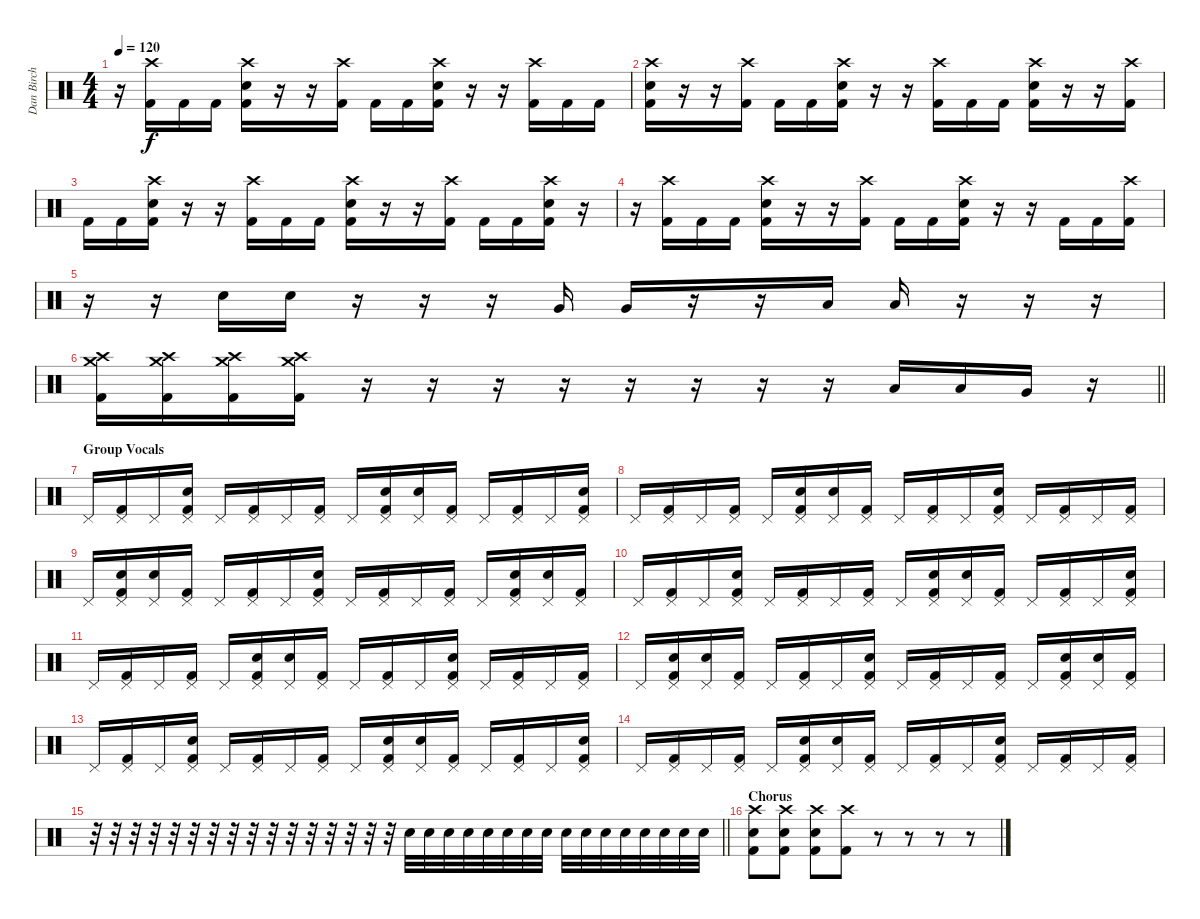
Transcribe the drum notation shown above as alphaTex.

\track ("Dan Birch" "Dan Birch") {instrument percussion}
\staff {score}
\articulation defaults
\ts (4 4)
\tempo 120
\clef neutral
\ks c
r.16{dy f} ("Crash high (hit)" "Kick (hit) 2").16 "Kick (hit) 2".16 "Kick (hit) 2".16 ("Crash high (hit)" "Kick (hit) 2" "Snare (hit) 2").16 r.16 r.16 ("Crash high (hit)" "Kick (hit) 2").16 "Kick (hit) 2".16 "Kick (hit) 2".16 ("Crash high (hit)" "Kick (hit) 2" "Snare (hit) 2").16 r.16 r.16 ("Crash high (hit)" "Kick (hit) 2").16 "Kick (hit) 2".16 "Kick (hit) 2".16 |
("Crash high (hit)" "Kick (hit) 2" "Snare (hit) 2").16 r.16 r.16 ("Crash high (hit)" "Kick (hit) 2").16 "Kick (hit) 2".16 "Kick (hit) 2".16 ("Crash high (hit)" "Kick (hit) 2" "Snare (hit) 2").16 r.16 r.16 ("Crash high (hit)" "Kick (hit) 2").16 "Kick (hit) 2".16 "Kick (hit) 2".16 ("Crash high (hit)" "Kick (hit) 2" "Snare (hit) 2").16 r.16 r.16 ("Crash high (hit)" "Kick (hit) 2").16 |
"Kick (hit) 2".16 "Kick (hit) 2".16 ("Crash high (hit)" "Kick (hit) 2" "Snare (hit) 2").16 r.16 r.16 ("Crash high (hit)" "Kick (hit) 2").16 "Kick (hit) 2".16 "Kick (hit) 2".16 ("Crash high (hit)" "Kick (hit) 2" "Snare (hit) 2").16 r.16 r.16 ("Crash high (hit)" "Kick (hit) 2").16 "Kick (hit) 2".16 "Kick (hit) 2".16 ("Crash high (hit)" "Kick (hit) 2" "Snare (hit) 2").16 r.16 |
r.16 ("Crash high (hit)" "Kick (hit) 2").16 "Kick (hit) 2".16 "Kick (hit) 2".16 ("Crash high (hit)" "Kick (hit) 2" "Snare (hit) 2").16 r.16 r.16 ("Crash high (hit)" "Kick (hit) 2").16 "Kick (hit) 2".16 "Kick (hit) 2".16 ("Crash high (hit)" "Kick (hit) 2" "Snare (hit) 2").16 r.16 r.16 "Kick (hit) 2".16 "Kick (hit) 2".16 ("Crash high (hit)" "Kick (hit) 2").16 |
r.16 r.16 "Snare (hit) 2".16 "Snare (hit) 2".16 r.16 r.16 r.16 "Very Low Tom (hit)".16 "Very Low Tom (hit)".16 r.16 r.16 "Low Tom (hit)".16 "Low Tom (hit)".16 r.16 r.16 r.16 |
\barLineRight lightlight
("Crash high (hit)" "Crash medium (hit)" "Kick (hit) 2").16 ("Crash high (hit)" "Crash medium (hit)" "Kick (hit) 2").16 ("Crash high (hit)" "Crash medium (hit)" "Kick (hit) 2").16 ("Crash high (hit)" "Crash medium (hit)" "Kick (hit) 2").16 r.16 r.16 r.16 r.16 r.16 r.16 r.16 r.16 "Low Tom (hit)".16 "Low Tom (hit)".16 "Very Low Tom (hit)".16 r.16 |
\section ("" "Group Vocals")
"Pedal Hi-Hat (hit)".16 ("Pedal Hi-Hat (hit)" "Kick (hit) 2").16 "Pedal Hi-Hat (hit)".16 ("Pedal Hi-Hat (hit)" "Snare (hit) 2" "Kick (hit) 2").16 "Pedal Hi-Hat (hit)".16 ("Pedal Hi-Hat (hit)" "Kick (hit) 2").16 "Pedal Hi-Hat (hit)".16 ("Pedal Hi-Hat (hit)" "Kick (hit) 2").16 "Pedal Hi-Hat (hit)".16 ("Pedal Hi-Hat (hit)" "Snare (hit) 2" "Kick (hit) 2").16 ("Pedal Hi-Hat (hit)" "Snare (hit) 2").16 ("Pedal Hi-Hat (hit)" "Kick (hit) 2").16 "Pedal Hi-Hat (hit)".16 ("Pedal Hi-Hat (hit)" "Kick (hit) 2").16 "Pedal Hi-Hat (hit)".16 ("Pedal Hi-Hat (hit)" "Snare (hit) 2" "Kick (hit) 2").16 |
"Pedal Hi-Hat (hit)".16 ("Pedal Hi-Hat (hit)" "Kick (hit) 2").16 "Pedal Hi-Hat (hit)".16 ("Pedal Hi-Hat (hit)" "Kick (hit) 2").16 "Pedal Hi-Hat (hit)".16 ("Pedal Hi-Hat (hit)" "Snare (hit) 2" "Kick (hit) 2").16 ("Pedal Hi-Hat (hit)" "Snare (hit) 2").16 ("Pedal Hi-Hat (hit)" "Kick (hit) 2").16 "Pedal Hi-Hat (hit)".16 ("Pedal Hi-Hat (hit)" "Kick (hit) 2").16 "Pedal Hi-Hat (hit)".16 ("Pedal Hi-Hat (hit)" "Snare (hit) 2" "Kick (hit) 2").16 "Pedal Hi-Hat (hit)".16 ("Pedal Hi-Hat (hit)" "Kick (hit) 2").16 "Pedal Hi-Hat (hit)".16 ("Pedal Hi-Hat (hit)" "Kick (hit) 2").16 |
"Pedal Hi-Hat (hit)".16 ("Pedal Hi-Hat (hit)" "Snare (hit) 2" "Kick (hit) 2").16 ("Pedal Hi-Hat (hit)" "Snare (hit) 2").16 ("Pedal Hi-Hat (hit)" "Kick (hit) 2").16 "Pedal Hi-Hat (hit)".16 ("Pedal Hi-Hat (hit)" "Kick (hit) 2").16 "Pedal Hi-Hat (hit)".16 ("Pedal Hi-Hat (hit)" "Snare (hit) 2" "Kick (hit) 2").16 "Pedal Hi-Hat (hit)".16 ("Pedal Hi-Hat (hit)" "Kick (hit) 2").16 "Pedal Hi-Hat (hit)".16 ("Pedal Hi-Hat (hit)" "Kick (hit) 2").16 "Pedal Hi-Hat (hit)".16 ("Pedal Hi-Hat (hit)" "Snare (hit) 2" "Kick (hit) 2").16 ("Pedal Hi-Hat (hit)" "Snare (hit) 2").16 ("Pedal Hi-Hat (hit)" "Kick (hit) 2").16 |
"Pedal Hi-Hat (hit)".16 ("Pedal Hi-Hat (hit)" "Kick (hit) 2").16 "Pedal Hi-Hat (hit)".16 ("Pedal Hi-Hat (hit)" "Snare (hit) 2" "Kick (hit) 2").16 "Pedal Hi-Hat (hit)".16 ("Pedal Hi-Hat (hit)" "Kick (hit) 2").16 "Pedal Hi-Hat (hit)".16 ("Pedal Hi-Hat (hit)" "Kick (hit) 2").16 "Pedal Hi-Hat (hit)".16 ("Pedal Hi-Hat (hit)" "Snare (hit) 2" "Kick (hit) 2").16 ("Pedal Hi-Hat (hit)" "Snare (hit) 2").16 ("Pedal Hi-Hat (hit)" "Kick (hit) 2").16 "Pedal Hi-Hat (hit)".16 ("Pedal Hi-Hat (hit)" "Kick (hit) 2").16 "Pedal Hi-Hat (hit)".16 ("Pedal Hi-Hat (hit)" "Snare (hit) 2" "Kick (hit) 2").16 |
"Pedal Hi-Hat (hit)".16 ("Pedal Hi-Hat (hit)" "Kick (hit) 2").16 "Pedal Hi-Hat (hit)".16 ("Pedal Hi-Hat (hit)" "Kick (hit) 2").16 "Pedal Hi-Hat (hit)".16 ("Pedal Hi-Hat (hit)" "Snare (hit) 2" "Kick (hit) 2").16 ("Pedal Hi-Hat (hit)" "Snare (hit) 2").16 ("Pedal Hi-Hat (hit)" "Kick (hit) 2").16 "Pedal Hi-Hat (hit)".16 ("Pedal Hi-Hat (hit)" "Kick (hit) 2").16 "Pedal Hi-Hat (hit)".16 ("Pedal Hi-Hat (hit)" "Snare (hit) 2" "Kick (hit) 2").16 "Pedal Hi-Hat (hit)".16 ("Pedal Hi-Hat (hit)" "Kick (hit) 2").16 "Pedal Hi-Hat (hit)".16 ("Pedal Hi-Hat (hit)" "Kick (hit) 2").16 |
"Pedal Hi-Hat (hit)".16 ("Pedal Hi-Hat (hit)" "Snare (hit) 2" "Kick (hit) 2").16 ("Pedal Hi-Hat (hit)" "Snare (hit) 2").16 ("Pedal Hi-Hat (hit)" "Kick (hit) 2").16 "Pedal Hi-Hat (hit)".16 ("Pedal Hi-Hat (hit)" "Kick (hit) 2").16 "Pedal Hi-Hat (hit)".16 ("Pedal Hi-Hat (hit)" "Snare (hit) 2" "Kick (hit) 2").16 "Pedal Hi-Hat (hit)".16 ("Pedal Hi-Hat (hit)" "Kick (hit) 2").16 "Pedal Hi-Hat (hit)".16 ("Pedal Hi-Hat (hit)" "Kick (hit) 2").16 "Pedal Hi-Hat (hit)".16 ("Pedal Hi-Hat (hit)" "Snare (hit) 2" "Kick (hit) 2").16 ("Pedal Hi-Hat (hit)" "Snare (hit) 2").16 ("Pedal Hi-Hat (hit)" "Kick (hit) 2").16 |
"Pedal Hi-Hat (hit)".16 ("Pedal Hi-Hat (hit)" "Kick (hit) 2").16 "Pedal Hi-Hat (hit)".16 ("Pedal Hi-Hat (hit)" "Snare (hit) 2" "Kick (hit) 2").16 "Pedal Hi-Hat (hit)".16 ("Pedal Hi-Hat (hit)" "Kick (hit) 2").16 "Pedal Hi-Hat (hit)".16 ("Pedal Hi-Hat (hit)" "Kick (hit) 2").16 "Pedal Hi-Hat (hit)".16 ("Pedal Hi-Hat (hit)" "Snare (hit) 2" "Kick (hit) 2").16 ("Pedal Hi-Hat (hit)" "Snare (hit) 2").16 ("Pedal Hi-Hat (hit)" "Kick (hit) 2").16 "Pedal Hi-Hat (hit)".16 ("Pedal Hi-Hat (hit)" "Kick (hit) 2").16 "Pedal Hi-Hat (hit)".16 ("Pedal Hi-Hat (hit)" "Snare (hit) 2" "Kick (hit) 2").16 |
"Pedal Hi-Hat (hit)".16 ("Pedal Hi-Hat (hit)" "Kick (hit) 2").16 "Pedal Hi-Hat (hit)".16 ("Pedal Hi-Hat (hit)" "Kick (hit) 2").16 "Pedal Hi-Hat (hit)".16 ("Pedal Hi-Hat (hit)" "Snare (hit) 2" "Kick (hit) 2").16 ("Pedal Hi-Hat (hit)" "Snare (hit) 2").16 ("Pedal Hi-Hat (hit)" "Kick (hit) 2").16 "Pedal Hi-Hat (hit)".16 ("Pedal Hi-Hat (hit)" "Kick (hit) 2").16 "Pedal Hi-Hat (hit)".16 ("Pedal Hi-Hat (hit)" "Snare (hit) 2" "Kick (hit) 2").16 "Pedal Hi-Hat (hit)".16 ("Pedal Hi-Hat (hit)" "Kick (hit) 2").16 "Pedal Hi-Hat (hit)".16 ("Pedal Hi-Hat (hit)" "Kick (hit) 2").16 |
\barLineRight lightlight
r.32 r.32 r.32 r.32 r.32 r.32 r.32 r.32 r.32 r.32 r.32 r.32 r.32 r.32 r.32 r.32 "Snare (hit) 2".32 "Snare (hit) 2".32 "Snare (hit) 2".32 "Snare (hit) 2".32 "Snare (hit) 2".32 "Snare (hit) 2".32 "Snare (hit) 2".32 "Snare (hit) 2".32 "Snare (hit) 2".32 "Snare (hit) 2".32 "Snare (hit) 2".32 "Snare (hit) 2".32 "Snare (hit) 2".32 "Snare (hit) 2".32 "Snare (hit) 2".32 "Snare (hit) 2".32 |
\section ("" "Chorus")
("Crash high (hit)" "Snare (hit) 2" "Kick (hit) 2").8 ("Crash high (hit)" "Snare (hit) 2" "Kick (hit) 2").8 ("Crash high (hit)" "Snare (hit) 2" "Kick (hit) 2").8 ("Crash high (hit)" "Kick (hit) 2").8 r.8 r.8 r.8 r.8
